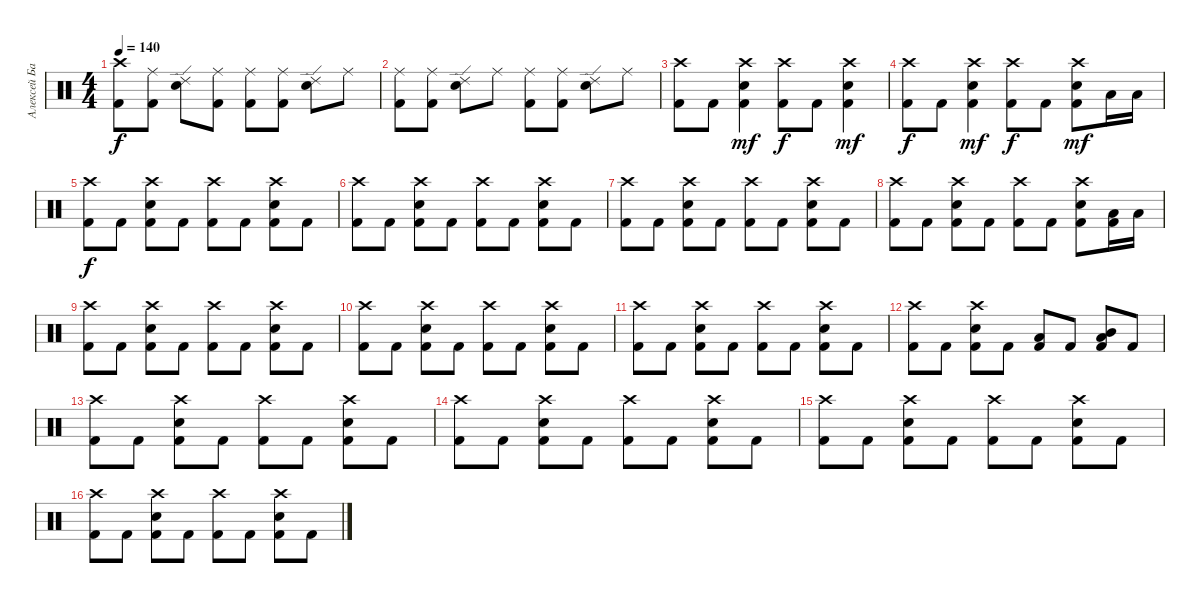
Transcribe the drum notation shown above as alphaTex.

\track ("Алексей Барзилович" "Алексей Ба") {instrument percussion}
\staff {score}
\articulation defaults
\ts (4 4)
\tempo 140
\clef neutral
\ks c
("Crash high (hit)" "Kick (hit) 2").8{dy f} ("Ride (middle)" "Kick (hit) 2").8 ("Ride (edge) 2" "Electric Snare (hit)").8 ("Ride (middle)" "Kick (hit) 2").8 ("Ride (middle)" "Kick (hit) 2").8 ("Ride (middle)" "Kick (hit) 2").8 ("Ride (edge) 2" "Electric Snare (hit)").8 "Ride (middle)".8 |
("Ride (middle)" "Kick (hit) 2").8 ("Ride (middle)" "Kick (hit) 2").8 ("Ride (edge) 2" "Electric Snare (hit)").8 "Ride (middle)".8 ("Ride (middle)" "Kick (hit) 2").8 ("Ride (middle)" "Kick (hit) 2").8 ("Ride (edge) 2" "Electric Snare (hit)").8 "Ride (middle)".8 |
("Crash high (hit)" "Kick (hit) 2").8 "Kick (hit) 2".8 ("Crash high (hit)" "Electric Snare (hit)" "Kick (hit) 2").4{dy mf} ("Crash high (hit)" "Kick (hit) 2").8{dy f} "Kick (hit) 2".8 ("Crash high (hit)" "Electric Snare (hit)" "Kick (hit) 2").4{dy mf} |
("Crash high (hit)" "Kick (hit) 2").8{dy f} "Kick (hit) 2".8 ("Crash high (hit)" "Electric Snare (hit)" "Kick (hit) 2").4{dy mf} ("Crash high (hit)" "Kick (hit) 2").8{dy f} "Kick (hit) 2".8 ("Crash high (hit)" "Electric Snare (hit)" "Kick (hit) 2").8{dy mf} "Low Tom (hit)".16 "Low Tom (hit)".16 |
("Crash high (hit)" "Kick (hit) 2").8{dy f} "Kick (hit) 2".8 ("Crash high (hit)" "Electric Snare (hit)" "Kick (hit) 2").8 "Kick (hit) 2".8 ("Crash high (hit)" "Kick (hit) 2").8 "Kick (hit) 2".8 ("Crash high (hit)" "Electric Snare (hit)" "Kick (hit) 2").8 "Kick (hit) 2".8 |
("Crash high (hit)" "Kick (hit) 2").8 "Kick (hit) 2".8 ("Crash high (hit)" "Electric Snare (hit)" "Kick (hit) 2").8 "Kick (hit) 2".8 ("Crash high (hit)" "Kick (hit) 2").8 "Kick (hit) 2".8 ("Crash high (hit)" "Electric Snare (hit)" "Kick (hit) 2").8 "Kick (hit) 2".8 |
("Crash high (hit)" "Kick (hit) 2").8 "Kick (hit) 2".8 ("Crash high (hit)" "Electric Snare (hit)" "Kick (hit) 2").8 "Kick (hit) 2".8 ("Crash high (hit)" "Kick (hit) 2").8 "Kick (hit) 2".8 ("Crash high (hit)" "Electric Snare (hit)" "Kick (hit) 2").8 "Kick (hit) 2".8 |
("Crash high (hit)" "Kick (hit) 2").8 "Kick (hit) 2".8 ("Crash high (hit)" "Electric Snare (hit)" "Kick (hit) 2").8 "Kick (hit) 2".8 ("Crash high (hit)" "Kick (hit) 2").8 "Kick (hit) 2".8 ("Crash high (hit)" "Electric Snare (hit)" "Kick (hit) 2").8 ("Low Tom (hit)" "Kick (hit) 2").16 "Low Tom (hit)".16 |
("Crash high (hit)" "Kick (hit) 2").8 "Kick (hit) 2".8 ("Crash high (hit)" "Electric Snare (hit)" "Kick (hit) 2").8 "Kick (hit) 2".8 ("Crash high (hit)" "Kick (hit) 2").8 "Kick (hit) 2".8 ("Crash high (hit)" "Electric Snare (hit)" "Kick (hit) 2").8 "Kick (hit) 2".8 |
("Crash high (hit)" "Kick (hit) 2").8 "Kick (hit) 2".8 ("Crash high (hit)" "Electric Snare (hit)" "Kick (hit) 2").8 "Kick (hit) 2".8 ("Crash high (hit)" "Kick (hit) 2").8 "Kick (hit) 2".8 ("Crash high (hit)" "Electric Snare (hit)" "Kick (hit) 2").8 "Kick (hit) 2".8 |
("Crash high (hit)" "Kick (hit) 2").8 "Kick (hit) 2".8 ("Crash high (hit)" "Electric Snare (hit)" "Kick (hit) 2").8 "Kick (hit) 2".8 ("Crash high (hit)" "Kick (hit) 2").8 "Kick (hit) 2".8 ("Crash high (hit)" "Electric Snare (hit)" "Kick (hit) 2").8 "Kick (hit) 2".8 |
("Crash high (hit)" "Kick (hit) 2").8 "Kick (hit) 2".8 ("Crash high (hit)" "Electric Snare (hit)" "Kick (hit) 2").8 "Kick (hit) 2".8 ("Low Tom (hit)" "Kick (hit) 2").8 "Kick (hit) 2".8 ("Mid Tom (hit)" "Low Tom (hit)" "Kick (hit) 2").8 "Kick (hit) 2".8 |
("Crash high (hit)" "Kick (hit) 2").8 "Kick (hit) 2".8 ("Crash high (hit)" "Electric Snare (hit)" "Kick (hit) 2").8 "Kick (hit) 2".8 ("Crash high (hit)" "Kick (hit) 2").8 "Kick (hit) 2".8 ("Crash high (hit)" "Electric Snare (hit)" "Kick (hit) 2").8 "Kick (hit) 2".8 |
("Crash high (hit)" "Kick (hit) 2").8 "Kick (hit) 2".8 ("Crash high (hit)" "Electric Snare (hit)" "Kick (hit) 2").8 "Kick (hit) 2".8 ("Crash high (hit)" "Kick (hit) 2").8 "Kick (hit) 2".8 ("Crash high (hit)" "Electric Snare (hit)" "Kick (hit) 2").8 "Kick (hit) 2".8 |
("Crash high (hit)" "Kick (hit) 2").8 "Kick (hit) 2".8 ("Crash high (hit)" "Electric Snare (hit)" "Kick (hit) 2").8 "Kick (hit) 2".8 ("Crash high (hit)" "Kick (hit) 2").8 "Kick (hit) 2".8 ("Crash high (hit)" "Electric Snare (hit)" "Kick (hit) 2").8 "Kick (hit) 2".8 |
("Crash high (hit)" "Kick (hit) 2").8 "Kick (hit) 2".8 ("Crash high (hit)" "Electric Snare (hit)" "Kick (hit) 2").8 "Kick (hit) 2".8 ("Crash high (hit)" "Kick (hit) 2").8 "Kick (hit) 2".8 ("Crash high (hit)" "Electric Snare (hit)" "Kick (hit) 2").8 "Kick (hit) 2".8
